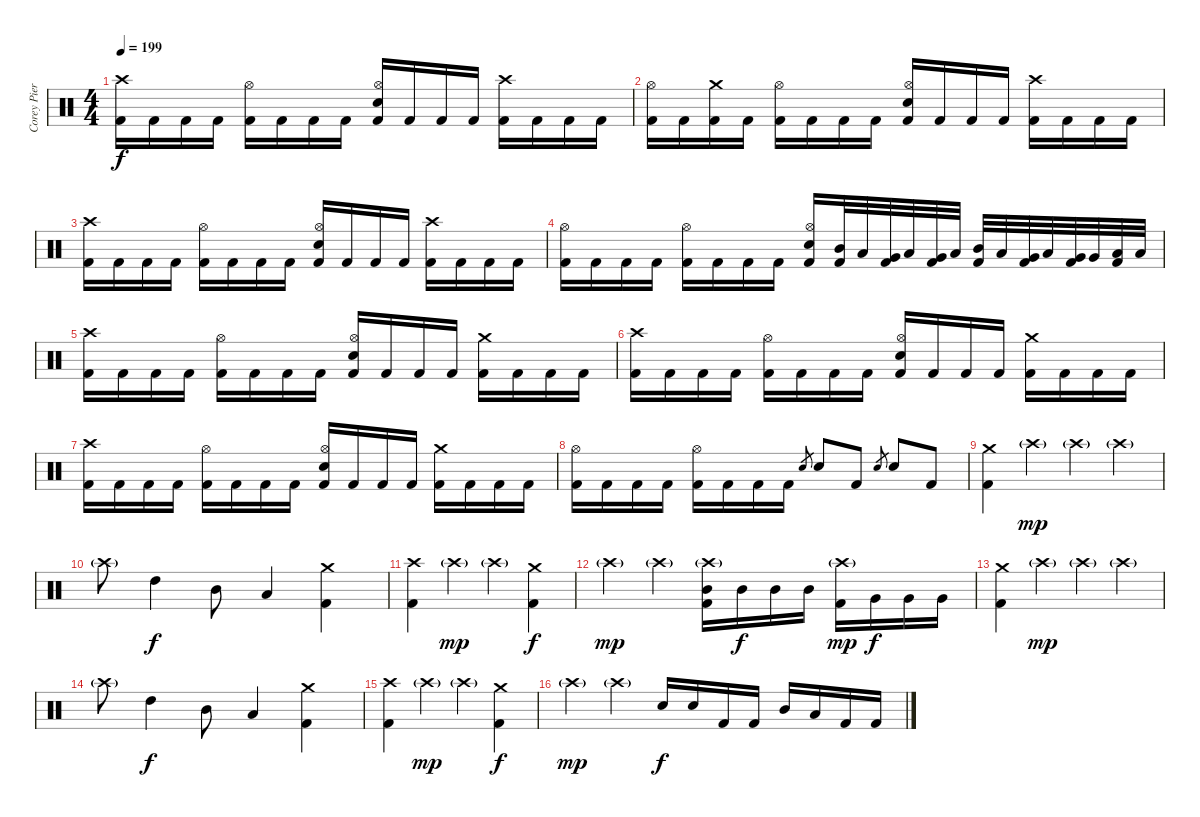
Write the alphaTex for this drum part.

\track ("Corey Pierce (Drums)" "Corey Pier") {instrument percussion}
\staff {score}
\articulation defaults
\ts (4 4)
\tempo 199
\clef neutral
\ks c
("Crash high (hit)" "Kick (hit) 2").16{dy f} "Kick (hit) 2".16 "Kick (hit) 2".16 "Kick (hit) 2".16 ("Hi-Hat (open)" "Kick (hit) 2").16 "Kick (hit) 2".16 "Kick (hit) 2".16 "Kick (hit) 2".16 ("Hi-Hat (open)" "Snare (hit) 2" "Kick (hit) 2").16 "Kick (hit) 2".16 "Kick (hit) 2".16 "Kick (hit) 2".16 ("Crash high (hit)" "Kick (hit) 2").16 "Kick (hit) 2".16 "Kick (hit) 2".16 "Kick (hit) 2".16 |
("Hi-Hat (open)" "Kick (hit) 2").16 "Kick (hit) 2".16 ("Crash medium (hit)" "Kick (hit) 2").16 "Kick (hit) 2".16 ("Hi-Hat (open)" "Kick (hit) 2").16 "Kick (hit) 2".16 "Kick (hit) 2".16 "Kick (hit) 2".16 ("Hi-Hat (open)" "Snare (hit) 2" "Kick (hit) 2").16 "Kick (hit) 2".16 "Kick (hit) 2".16 "Kick (hit) 2".16 ("Crash high (hit)" "Kick (hit) 2").16 "Kick (hit) 2".16 "Kick (hit) 2".16 "Kick (hit) 2".16 |
("Crash high (hit)" "Kick (hit) 2").16 "Kick (hit) 2".16 "Kick (hit) 2".16 "Kick (hit) 2".16 ("Hi-Hat (open)" "Kick (hit) 2").16 "Kick (hit) 2".16 "Kick (hit) 2".16 "Kick (hit) 2".16 ("Hi-Hat (open)" "Snare (hit) 2" "Kick (hit) 2").16 "Kick (hit) 2".16 "Kick (hit) 2".16 "Kick (hit) 2".16 ("Crash high (hit)" "Kick (hit) 2").16 "Kick (hit) 2".16 "Kick (hit) 2".16 "Kick (hit) 2".16 |
("Hi-Hat (open)" "Kick (hit) 2").16 "Kick (hit) 2".16 "Kick (hit) 2".16 "Kick (hit) 2".16 ("Hi-Hat (open)" "Kick (hit) 2").16 "Kick (hit) 2".16 "Kick (hit) 2".16 "Kick (hit) 2".16 ("Hi-Hat (open)" "Snare (hit) 2" "Kick (hit) 2").16 ("Mid Tom (hit)" "Kick (hit) 2").32 "Low Tom (hit)".32 ("Very Low Tom (hit)" "Kick (hit) 2").32 "Low Tom (hit)".32 ("Very Low Tom (hit)" "Kick (hit) 2").32 "Low Tom (hit)".32 ("Mid Tom (hit)" "Kick (hit) 2").32 "Low Tom (hit)".32 ("Very Low Tom (hit)" "Kick (hit) 2").32 "Low Tom (hit)".32 ("Very Low Tom (hit)" "Kick (hit) 2").32 "Very Low Tom (hit)".32 ("Low Floor Tom (hit)" "Kick (hit) 2").32 "Low Floor Tom (hit)".32 |
("Crash high (hit)" "Kick (hit) 2").16 "Kick (hit) 2".16 "Kick (hit) 2".16 "Kick (hit) 2".16 ("Hi-Hat (open)" "Kick (hit) 2").16 "Kick (hit) 2".16 "Kick (hit) 2".16 "Kick (hit) 2".16 ("Hi-Hat (open)" "Snare (hit) 2" "Kick (hit) 2").16 "Kick (hit) 2".16 "Kick (hit) 2".16 "Kick (hit) 2".16 ("Crash medium (hit)" "Kick (hit) 2").16 "Kick (hit) 2".16 "Kick (hit) 2".16 "Kick (hit) 2".16 |
("Crash high (hit)" "Kick (hit) 2").16 "Kick (hit) 2".16 "Kick (hit) 2".16 "Kick (hit) 2".16 ("Hi-Hat (open)" "Kick (hit) 2").16 "Kick (hit) 2".16 "Kick (hit) 2".16 "Kick (hit) 2".16 ("Hi-Hat (open)" "Snare (hit) 2" "Kick (hit) 2").16 "Kick (hit) 2".16 "Kick (hit) 2".16 "Kick (hit) 2".16 ("Crash medium (hit)" "Kick (hit) 2").16 "Kick (hit) 2".16 "Kick (hit) 2".16 "Kick (hit) 2".16 |
("Crash high (hit)" "Kick (hit) 2").16 "Kick (hit) 2".16 "Kick (hit) 2".16 "Kick (hit) 2".16 ("Hi-Hat (open)" "Kick (hit) 2").16 "Kick (hit) 2".16 "Kick (hit) 2".16 "Kick (hit) 2".16 ("Hi-Hat (open)" "Snare (hit) 2" "Kick (hit) 2").16 "Kick (hit) 2".16 "Kick (hit) 2".16 "Kick (hit) 2".16 ("Crash medium (hit)" "Kick (hit) 2").16 "Kick (hit) 2".16 "Kick (hit) 2".16 "Kick (hit) 2".16 |
("Hi-Hat (open)" "Kick (hit) 2").16 "Kick (hit) 2".16 "Kick (hit) 2".16 "Kick (hit) 2".16 ("Hi-Hat (open)" "Kick (hit) 2").16 "Kick (hit) 2".16 "Kick (hit) 2".16 "Kick (hit) 2".16 "Snare (hit) 2".8{gr} "Snare (hit) 2".8 "Kick (hit) 2".8 "Snare (hit) 2".8{gr} "Snare (hit) 2".8 "Kick (hit) 2".8 |
("Crash medium (hit)" "Kick (hit) 2").4 "Crash high (hit)"{g}.4{dy mp} "Crash high (hit)"{g}.4 "Crash high (hit)"{g}.4 |
"Crash high (hit)"{g}.8 "High Tom (hit)".4{dy f} "Mid Tom (hit)".8 "Low Tom (hit)".4 ("Crash medium (hit)" "Kick (hit) 2").4 |
("Crash high (hit)" "Kick (hit) 2").4 "Crash high (hit)"{g}.4{dy mp} "Crash high (hit)"{g}.4 ("Crash medium (hit)" "Kick (hit) 2").4{dy f} |
"Crash high (hit)"{g}.4{dy mp} "Crash high (hit)"{g}.4 ("Crash high (hit)"{g} "Mid Tom (hit)" "Kick (hit) 2").16 "Mid Tom (hit)".16{dy f} "Mid Tom (hit)".16 "Mid Tom (hit)".16 ("Crash high (hit)"{g} "Kick (hit) 2").16{dy mp} "Very Low Tom (hit)".16{dy f} "Very Low Tom (hit)".16 "Very Low Tom (hit)".16 |
("Crash medium (hit)" "Kick (hit) 2").4 "Crash high (hit)"{g}.4{dy mp} "Crash high (hit)"{g}.4 "Crash high (hit)"{g}.4 |
"Crash high (hit)"{g}.8 "High Tom (hit)".4{dy f} "Mid Tom (hit)".8 "Low Tom (hit)".4 ("Crash medium (hit)" "Kick (hit) 2").4 |
("Crash high (hit)" "Kick (hit) 2").4 "Crash high (hit)"{g}.4{dy mp} "Crash high (hit)"{g}.4 ("Crash medium (hit)" "Kick (hit) 2").4{dy f} |
"Crash high (hit)"{g}.4{dy mp} "Crash high (hit)"{g}.4 "Snare (hit) 2".16{dy f} "Snare (hit) 2".16 "Kick (hit) 2".16 "Kick (hit) 2".16 "Mid Tom (hit)".16 "Low Tom (hit)".16 "Kick (hit) 2".16 "Kick (hit) 2".16
